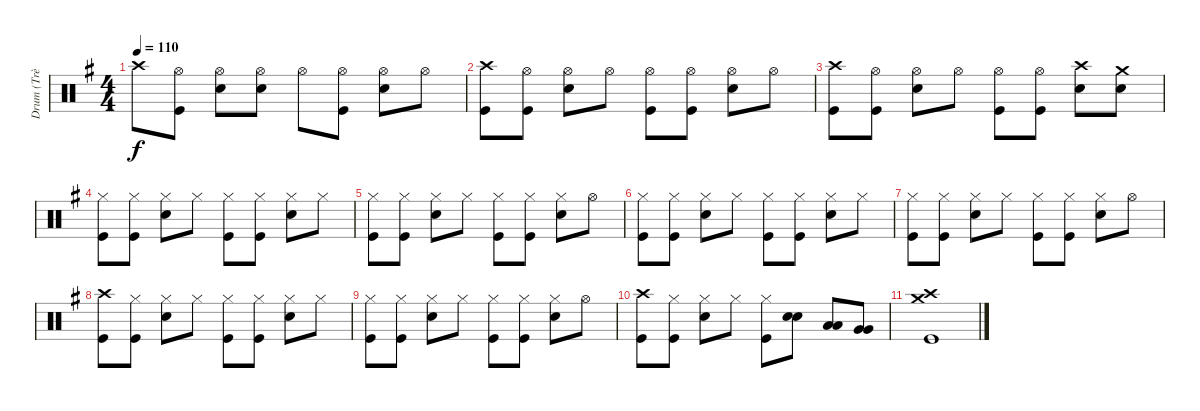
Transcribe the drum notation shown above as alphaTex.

\track ("Drum (Trè Cool)" "Drum (Trè ") {instrument percussion}
\staff {score}
\articulation defaults
\ts (4 4)
\tempo 110
\clef neutral
\ks g "Crash high (hit)".8{dy f}
("Kick (hit)" "Hi-Hat (open)").8 ("Hi-Hat (open)" "Snare (hit) 2").8 ("Hi-Hat (open)" "Snare (hit) 2").8 "Hi-Hat (open)".8 ("Hi-Hat (open)" "Kick (hit)").8 ("Hi-Hat (open)" "Snare (hit) 2").8 "Hi-Hat (open)".8 |
("Crash high (hit)" "Kick (hit)").8 ("Hi-Hat (open)" "Kick (hit)").8 ("Hi-Hat (open)" "Snare (hit) 2").8 "Hi-Hat (open)".8 ("Hi-Hat (open)" "Kick (hit)").8 ("Hi-Hat (open)" "Kick (hit)").8 ("Hi-Hat (open)" "Snare (hit) 2").8 "Hi-Hat (open)".8 |
("Crash high (hit)" "Kick (hit)").8 ("Hi-Hat (open)" "Kick (hit)").8 ("Hi-Hat (open)" "Snare (hit) 2").8 "Hi-Hat (open)".8 ("Hi-Hat (open)" "Kick (hit)").8 ("Hi-Hat (open)" "Kick (hit)").8 ("Crash high (hit)" "Snare (hit) 2").8 ("Crash medium (hit)" "Snare (hit) 2").8 |
("Hi-Hat (closed)" "Kick (hit)").8 ("Kick (hit)" "Hi-Hat (closed)").8 ("Hi-Hat (closed)" "Snare (hit) 2").8 "Hi-Hat (closed)".8 ("Hi-Hat (closed)" "Kick (hit)").8 ("Hi-Hat (closed)" "Kick (hit)").8 ("Hi-Hat (closed)" "Snare (hit) 2").8 "Hi-Hat (closed)".8 |
("Hi-Hat (closed)" "Kick (hit)").8 ("Hi-Hat (closed)" "Kick (hit)").8 ("Hi-Hat (closed)" "Snare (hit) 2").8 "Hi-Hat (closed)".8 ("Hi-Hat (closed)" "Kick (hit)").8 ("Hi-Hat (closed)" "Kick (hit)").8 ("Hi-Hat (closed)" "Snare (hit) 2").8 "Hi-Hat (open)".8 |
("Hi-Hat (closed)" "Kick (hit)").8 ("Kick (hit)" "Hi-Hat (closed)").8 ("Hi-Hat (closed)" "Snare (hit) 2").8 "Hi-Hat (closed)".8 ("Hi-Hat (closed)" "Kick (hit)").8 ("Hi-Hat (closed)" "Kick (hit)").8 ("Hi-Hat (closed)" "Snare (hit) 2").8 "Hi-Hat (closed)".8 |
("Hi-Hat (closed)" "Kick (hit)").8 ("Hi-Hat (closed)" "Kick (hit)").8 ("Hi-Hat (closed)" "Snare (hit) 2").8 "Hi-Hat (closed)".8 ("Hi-Hat (closed)" "Kick (hit)").8 ("Hi-Hat (closed)" "Kick (hit)").8 ("Hi-Hat (closed)" "Snare (hit) 2").8 "Hi-Hat (open)".8 |
("Crash high (hit)" "Kick (hit)").8 ("Kick (hit)" "Hi-Hat (closed)").8 ("Hi-Hat (closed)" "Snare (hit) 2").8 "Hi-Hat (closed)".8 ("Hi-Hat (closed)" "Kick (hit)").8 ("Hi-Hat (closed)" "Kick (hit)").8 ("Hi-Hat (closed)" "Snare (hit) 2").8 "Hi-Hat (closed)".8 |
("Hi-Hat (closed)" "Kick (hit)").8 ("Hi-Hat (closed)" "Kick (hit)").8 ("Hi-Hat (closed)" "Snare (hit) 2").8 "Hi-Hat (closed)".8 ("Hi-Hat (closed)" "Kick (hit)").8 ("Hi-Hat (closed)" "Kick (hit)").8 ("Hi-Hat (closed)" "Snare (hit) 2").8 "Hi-Hat (open)".8 |
("Crash high (hit)" "Kick (hit)").8 ("Kick (hit)" "Hi-Hat (closed)").8 ("Hi-Hat (closed)" "Snare (hit) 2").8 "Hi-Hat (closed)".8 ("Hi-Hat (closed)" "Kick (hit)").8 ("Snare (hit) 2" "Snare (hit) 2").8 ("Low Tom (hit)" "Low Tom (hit)").8 ("Very Low Tom (hit)" "Very Low Tom (hit)").8 |
("Crash high (hit)" "Crash medium (hit)" "Kick (hit)").1
